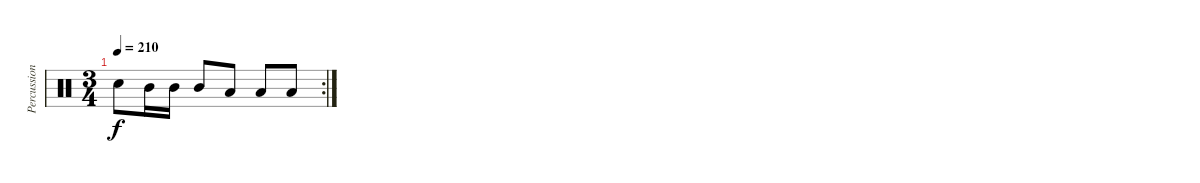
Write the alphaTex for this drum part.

\track ("Percussion" "Percussion") {instrument percussion}
\staff {score}
\articulation defaults
\rc 2
\ts (3 4)
\tempo 210
\clef neutral
\ks c "Electric Snare (hit)".8{dy f} "Mid Tom (hit)".16 "Mid Tom (hit)".16 "Mid Tom (hit)".8 "Low Tom (hit)".8 "Low Tom (hit)".8 "Low Tom (hit)".8
